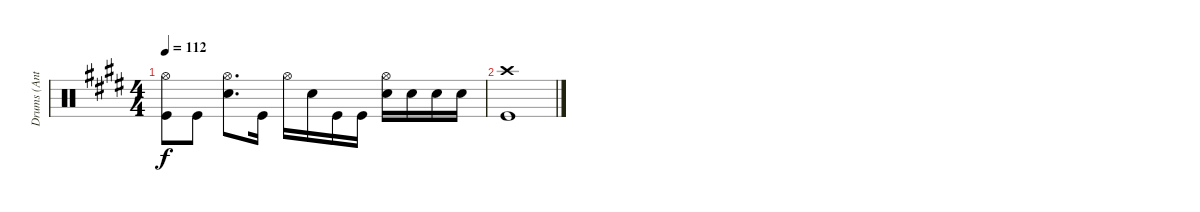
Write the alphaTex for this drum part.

\track ("Drums (Ant)" "Drums (Ant") {instrument percussion}
\staff {score}
\articulation defaults
\ts (4 4)
\tempo 112
\clef neutral
\ks e
("Hi-Hat (open)" "Kick (hit)").8{dy f} "Kick (hit)".8 ("Hi-Hat (open)" "Snare (hit) 2").8{d} "Kick (hit)".16 "Hi-Hat (open)".16 "Snare (hit) 2".16 "Kick (hit)".16 "Kick (hit)".16 ("Hi-Hat (open)" "Snare (hit) 2").16 "Snare (hit) 2".16 "Snare (hit) 2".16 "Snare (hit) 2".16 |
("Crash high (hit)" "Kick (hit)").1
